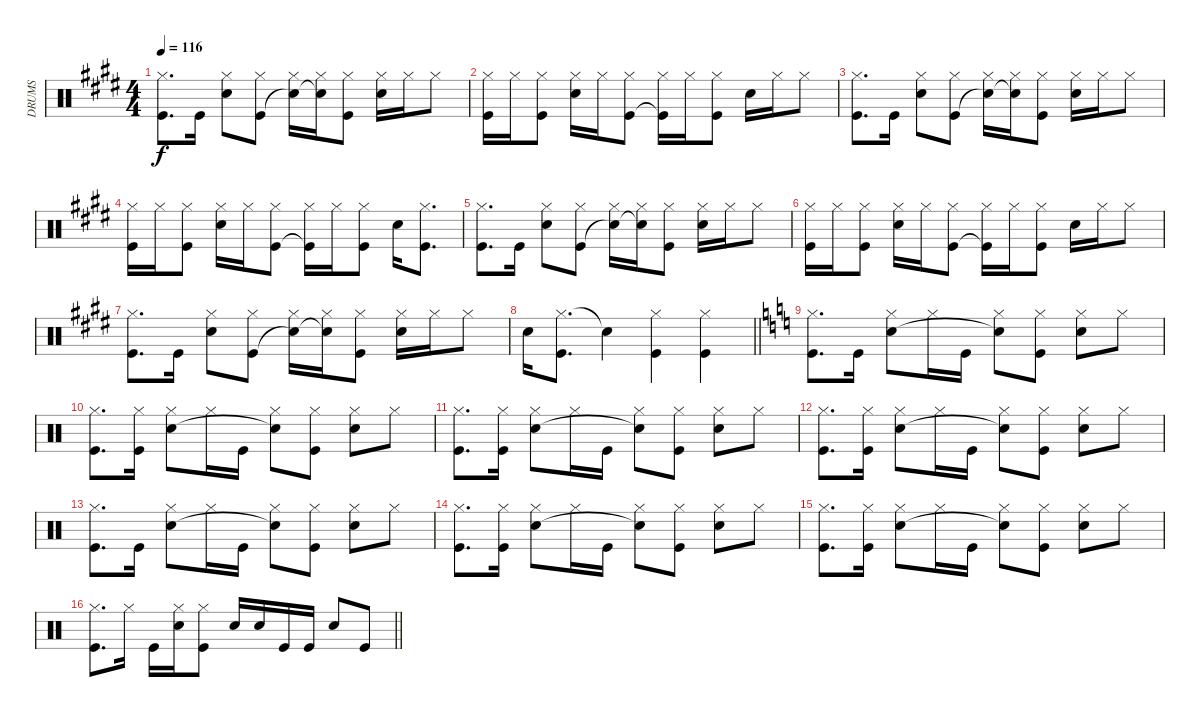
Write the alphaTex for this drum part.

\track ("DRUMS" "DRUMS") {instrument percussion}
\staff {score}
\articulation defaults
\ts (4 4)
\tempo 116
\clef neutral
\ks c#minor
("Hi-Hat (closed)" "Kick (hit)").8{d dy f} "Kick (hit)".16 ("Hi-Hat (closed)" "Snare (hit) 2").8 ("Hi-Hat (closed)" "Kick (hit)").8 ("Hi-Hat (closed)" "Snare (hit)"{t}).16 ("Hi-Hat (closed)" "Snare (hit)"{t}).16 ("Hi-Hat (closed)" "Kick (hit)").8 ("Hi-Hat (closed)" "Snare (hit) 2").16 "Hi-Hat (closed)".16 "Hi-Hat (closed)".8 |
("Hi-Hat (closed)" "Kick (hit)").16 "Hi-Hat (closed)".16 ("Hi-Hat (closed)" "Kick (hit)").8 ("Hi-Hat (closed)" "Snare (hit) 2").16 "Hi-Hat (closed)".16 ("Hi-Hat (closed)" "Kick (hit)").8 ("Hi-Hat (closed)" "Kick (hit)"{t}).16 "Hi-Hat (closed)".16 ("Hi-Hat (closed)" "Kick (hit)").8 "Snare (hit) 2".16 "Hi-Hat (closed)".16 "Hi-Hat (closed)".8 |
("Hi-Hat (closed)" "Kick (hit)").8{d} "Kick (hit)".16 ("Hi-Hat (closed)" "Snare (hit) 2").8 ("Hi-Hat (closed)" "Kick (hit)").8 ("Hi-Hat (closed)" "Snare (hit)"{t}).16 ("Hi-Hat (closed)" "Snare (hit)"{t}).16 ("Hi-Hat (closed)" "Kick (hit)").8 ("Hi-Hat (closed)" "Snare (hit) 2").16 "Hi-Hat (closed)".16 "Hi-Hat (closed)".8 |
("Hi-Hat (closed)" "Kick (hit)").16 "Hi-Hat (closed)".16 ("Hi-Hat (closed)" "Kick (hit)").8 ("Hi-Hat (closed)" "Snare (hit) 2").16 "Hi-Hat (closed)".16 ("Hi-Hat (closed)" "Kick (hit)").8 ("Hi-Hat (closed)" "Kick (hit)"{t}).16 "Hi-Hat (closed)".16 ("Hi-Hat (closed)" "Kick (hit)").8 "Snare (hit) 2".16 ("Hi-Hat (closed)" "Kick (hit)").8{d} |
("Hi-Hat (closed)" "Kick (hit)").8{d} "Kick (hit)".16 ("Hi-Hat (closed)" "Snare (hit) 2").8 ("Hi-Hat (closed)" "Kick (hit)").8 ("Hi-Hat (closed)" "Snare (hit)"{t}).16 ("Hi-Hat (closed)" "Snare (hit)"{t}).16 ("Hi-Hat (closed)" "Kick (hit)").8 ("Hi-Hat (closed)" "Snare (hit) 2").16 "Hi-Hat (closed)".16 "Hi-Hat (closed)".8 |
("Hi-Hat (closed)" "Kick (hit)").16 "Hi-Hat (closed)".16 ("Hi-Hat (closed)" "Kick (hit)").8 ("Hi-Hat (closed)" "Snare (hit) 2").16 "Hi-Hat (closed)".16 ("Hi-Hat (closed)" "Kick (hit)").8 ("Hi-Hat (closed)" "Kick (hit)"{t}).16 "Hi-Hat (closed)".16 ("Hi-Hat (closed)" "Kick (hit)").8 "Snare (hit) 2".16 "Hi-Hat (closed)".16 "Hi-Hat (closed)".8 |
("Hi-Hat (closed)" "Kick (hit)").8{d} "Kick (hit)".16 ("Hi-Hat (closed)" "Snare (hit) 2").8 ("Hi-Hat (closed)" "Kick (hit)").8 ("Hi-Hat (closed)" "Snare (hit)"{t}).16 ("Hi-Hat (closed)" "Snare (hit)"{t}).16 ("Hi-Hat (closed)" "Kick (hit)").8 ("Hi-Hat (closed)" "Snare (hit) 2").16 "Hi-Hat (closed)".16 "Hi-Hat (closed)".8 |
\barLineRight lightlight "Snare (hit) 2".16
("Hi-Hat (closed)" "Kick (hit)").8{d} "Snare (hit)"{t}.4 ("Hi-Hat (closed)" "Kick (hit)").4 ("Hi-Hat (closed)" "Kick (hit)").4 |
\ks c
("Hi-Hat (closed)" "Kick (hit)").8{d} "Kick (hit)".16 ("Hi-Hat (closed)" "Snare (hit) 2").8 "Hi-Hat (closed)".16 "Kick (hit)".16 ("Hi-Hat (closed)" "Snare (hit)"{t}).8 ("Hi-Hat (closed)" "Kick (hit)").8 ("Hi-Hat (closed)" "Snare (hit) 2").8 "Hi-Hat (closed)".8 |
("Hi-Hat (closed)" "Kick (hit)").8{d} ("Hi-Hat (closed)" "Kick (hit)").16 ("Hi-Hat (closed)" "Snare (hit) 2").8 "Hi-Hat (closed)".16 "Kick (hit)".16 ("Hi-Hat (closed)" "Snare (hit)"{t}).8 ("Hi-Hat (closed)" "Kick (hit)").8 ("Hi-Hat (closed)" "Snare (hit) 2").8 "Hi-Hat (closed)".8 |
("Hi-Hat (closed)" "Kick (hit)").8{d} ("Hi-Hat (closed)" "Kick (hit)").16 ("Hi-Hat (closed)" "Snare (hit) 2").8 "Hi-Hat (closed)".16 "Kick (hit)".16 ("Hi-Hat (closed)" "Snare (hit)"{t}).8 ("Hi-Hat (closed)" "Kick (hit)").8 ("Hi-Hat (closed)" "Snare (hit) 2").8 "Hi-Hat (closed)".8 |
("Hi-Hat (closed)" "Kick (hit)").8{d} ("Hi-Hat (closed)" "Kick (hit)").16 ("Hi-Hat (closed)" "Snare (hit) 2").8 "Hi-Hat (closed)".16 "Kick (hit)".16 ("Hi-Hat (closed)" "Snare (hit)"{t}).8 ("Hi-Hat (closed)" "Kick (hit)").8 ("Hi-Hat (closed)" "Snare (hit) 2").8 "Hi-Hat (closed)".8 |
("Hi-Hat (closed)" "Kick (hit)").8{d} "Kick (hit)".16 ("Hi-Hat (closed)" "Snare (hit) 2").8 "Hi-Hat (closed)".16 "Kick (hit)".16 ("Hi-Hat (closed)" "Snare (hit)"{t}).8 ("Hi-Hat (closed)" "Kick (hit)").8 ("Hi-Hat (closed)" "Snare (hit) 2").8 "Hi-Hat (closed)".8 |
("Hi-Hat (closed)" "Kick (hit)").8{d} ("Hi-Hat (closed)" "Kick (hit)").16 ("Hi-Hat (closed)" "Snare (hit) 2").8 "Hi-Hat (closed)".16 "Kick (hit)".16 ("Hi-Hat (closed)" "Snare (hit)"{t}).8 ("Hi-Hat (closed)" "Kick (hit)").8 ("Hi-Hat (closed)" "Snare (hit) 2").8 "Hi-Hat (closed)".8 |
("Hi-Hat (closed)" "Kick (hit)").8{d} ("Hi-Hat (closed)" "Kick (hit)").16 ("Hi-Hat (closed)" "Snare (hit) 2").8 "Hi-Hat (closed)".16 "Kick (hit)".16 ("Hi-Hat (closed)" "Snare (hit)"{t}).8 ("Hi-Hat (closed)" "Kick (hit)").8 ("Hi-Hat (closed)" "Snare (hit) 2").8 "Hi-Hat (closed)".8 |
\barLineRight lightlight
("Hi-Hat (closed)" "Kick (hit)").8{d} "Hi-Hat (closed)".16 "Kick (hit)".16 ("Hi-Hat (closed)" "Snare (hit) 2").16 ("Hi-Hat (closed)" "Kick (hit)").8 "Snare (hit) 2".16 "Snare (hit) 2".16 "Kick (hit)".16 "Kick (hit)".16 "Snare (hit) 2".8 "Kick (hit)".8
